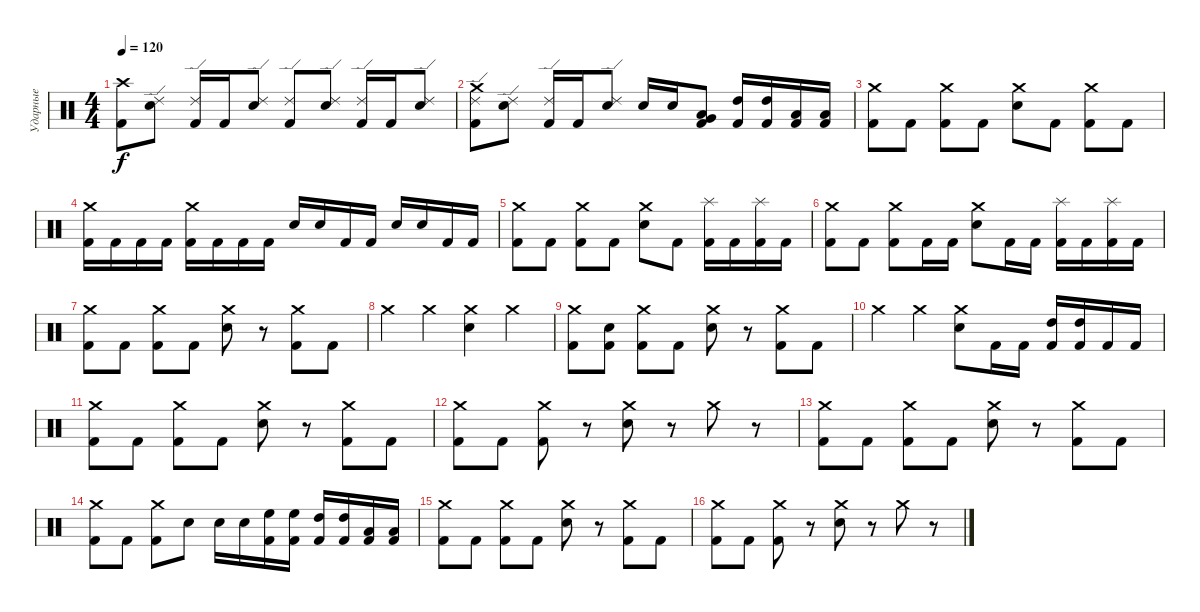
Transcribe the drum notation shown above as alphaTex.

\track ("Ударные" "Ударные") {instrument percussion}
\staff {score}
\articulation defaults
\ts (4 4)
\tempo 120
\clef neutral
\ks c
("Crash high (hit)" "Kick (hit) 2").8{dy f} ("Ride (edge) 2" "Electric Snare (hit)").8 ("Ride (edge) 2" "Kick (hit) 2").16 "Kick (hit) 2".16 ("Ride (edge) 2" "Electric Snare (hit)").8 ("Ride (edge) 2" "Kick (hit) 2").8 ("Ride (edge) 2" "Electric Snare (hit)").8 ("Ride (edge) 2" "Kick (hit) 2").16 "Kick (hit) 2".16 ("Ride (edge) 2" "Electric Snare (hit)").8 |
("Crash medium (hit)" "Ride (edge) 2" "Kick (hit) 2").8 ("Ride (edge) 2" "Electric Snare (hit)").8 ("Ride (edge) 2" "Kick (hit) 2").16 "Kick (hit) 2".16 ("Ride (edge) 2" "Electric Snare (hit)").8 "Electric Snare (hit)".16 "Electric Snare (hit)".16 ("Low Floor Tom (hit)" "Kick (hit) 2" "Very Low Tom (hit)").8 ("High Tom (hit)" "Kick (hit) 2").16 ("High Tom (hit)" "Kick (hit) 2").16 ("Low Tom (hit)" "Kick (hit) 2").16 ("Low Tom (hit)" "Kick (hit) 2").16 |
("Kick (hit) 2" "Crash medium (hit)").8 "Kick (hit) 2".8 ("Kick (hit) 2" "Crash medium (hit)").8 "Kick (hit) 2".8 ("Electric Snare (hit)" "Crash medium (hit)").8 "Kick (hit) 2".8 ("Kick (hit) 2" "Crash medium (hit)").8 "Kick (hit) 2".8 |
("Kick (hit) 2" "Crash medium (hit)").16 "Kick (hit) 2".16 "Kick (hit) 2".16 "Kick (hit) 2".16 ("Kick (hit) 2" "Crash medium (hit)").16 "Kick (hit) 2".16 "Kick (hit) 2".16 "Kick (hit) 2".16 "Electric Snare (hit)".16 "Electric Snare (hit)".16 "Kick (hit) 2".16 "Kick (hit) 2".16 "Electric Snare (hit)".16 "Electric Snare (hit)".16 "Kick (hit) 2".16 "Kick (hit) 2".16 |
("Kick (hit) 2" "Crash medium (hit)").8 "Kick (hit) 2".8 ("Kick (hit) 2" "Crash medium (hit)").8 "Kick (hit) 2".8 ("Electric Snare (hit)" "Crash medium (hit)").8 "Kick (hit) 2".8 ("Kick (hit) 2" "Splash (hit)").16 "Kick (hit) 2".16 ("Kick (hit) 2" "Splash (hit)").16 "Kick (hit) 2".16 |
("Kick (hit) 2" "Crash medium (hit)").8 "Kick (hit) 2".8 ("Kick (hit) 2" "Crash medium (hit)").8 "Kick (hit) 2".16 "Kick (hit) 2".16 ("Electric Snare (hit)" "Crash medium (hit)").8 "Kick (hit) 2".16 "Kick (hit) 2".16 ("Kick (hit) 2" "Splash (hit)").16 "Kick (hit) 2".16 ("Kick (hit) 2" "Splash (hit)").16 "Kick (hit) 2".16 |
("Crash medium (hit)" "Kick (hit) 2").8 "Kick (hit) 2".8 ("Crash medium (hit)" "Kick (hit) 2").8 "Kick (hit) 2".8 ("Crash medium (hit)" "Electric Snare (hit)").8 r.8 ("Crash medium (hit)" "Kick (hit) 2").8 "Kick (hit) 2".8 |
"Crash medium (hit)".4 "Crash medium (hit)".4 ("Crash medium (hit)" "Electric Snare (hit)").4 "Crash medium (hit)".4 |
("Crash medium (hit)" "Kick (hit) 2").8 ("Snare (hit)" "Kick (hit) 2").8 ("Crash medium (hit)" "Kick (hit) 2").8 "Kick (hit) 2".8 ("Crash medium (hit)" "Electric Snare (hit)").8 r.8 ("Crash medium (hit)" "Kick (hit) 2").8 "Kick (hit) 2".8 |
"Crash medium (hit)".4 "Crash medium (hit)".4 ("Crash medium (hit)" "Electric Snare (hit)").8 "Kick (hit) 2".16 "Kick (hit) 2".16 ("High Tom (hit)" "Kick (hit) 2").16 ("High Tom (hit)" "Kick (hit) 2").16 "Kick (hit) 2".16 "Kick (hit) 2".16 |
("Crash medium (hit)" "Kick (hit) 2").8 "Kick (hit) 2".8 ("Crash medium (hit)" "Kick (hit) 2").8 "Kick (hit) 2".8 ("Crash medium (hit)" "Electric Snare (hit)").8 r.8 ("Crash medium (hit)" "Kick (hit) 2").8 "Kick (hit) 2".8 |
("Crash medium (hit)" "Kick (hit) 2").8 "Kick (hit) 2".8 ("Crash medium (hit)" "Kick (hit) 2").8 r.8 ("Crash medium (hit)" "Electric Snare (hit)").8 r.8 "Crash medium (hit)".8 r.8 |
("Crash medium (hit)" "Kick (hit) 2").8 "Kick (hit) 2".8 ("Crash medium (hit)" "Kick (hit) 2").8 "Kick (hit) 2".8 ("Crash medium (hit)" "Electric Snare (hit)").8 r.8 ("Crash medium (hit)" "Kick (hit) 2").8 "Kick (hit) 2".8 |
("Crash medium (hit)" "Kick (hit) 2").8 "Kick (hit) 2".8 ("Crash medium (hit)" "Kick (hit) 2").8 "Electric Snare (hit)".8 "Electric Snare (hit)".16 "Electric Snare (hit)".16 ("High Floor Tom (hit)" "Kick (hit) 2").16 ("High Floor Tom (hit)" "Kick (hit) 2").16 ("High Tom (hit)" "Kick (hit) 2").16 ("High Tom (hit)" "Kick (hit) 2").16 ("Low Tom (hit)" "Kick (hit) 2").16 ("Low Tom (hit)" "Kick (hit) 2").16 |
("Crash medium (hit)" "Kick (hit) 2").8 "Kick (hit) 2".8 ("Crash medium (hit)" "Kick (hit) 2").8 "Kick (hit) 2".8 ("Crash medium (hit)" "Electric Snare (hit)").8 r.8 ("Crash medium (hit)" "Kick (hit) 2").8 "Kick (hit) 2".8 |
("Crash medium (hit)" "Kick (hit) 2").8 "Kick (hit) 2".8 ("Crash medium (hit)" "Kick (hit) 2").8 r.8 ("Crash medium (hit)" "Electric Snare (hit)").8 r.8 "Crash medium (hit)".8 r.8
